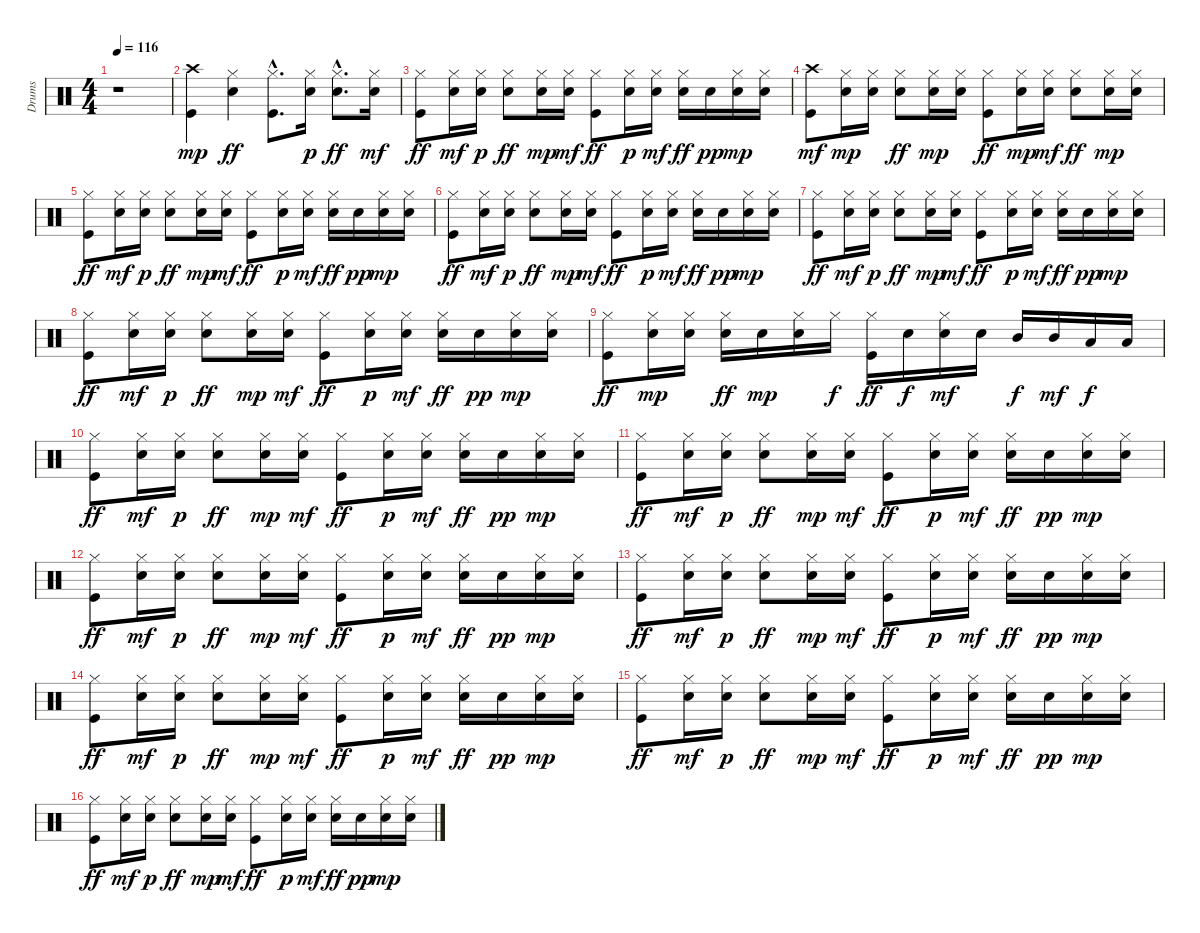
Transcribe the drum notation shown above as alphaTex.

\track ("Drums" "Drums") {instrument percussion}
\staff {score}
\articulation defaults
\ts (4 4)
\tempo 116
\clef neutral
\ks c
r.1{dy mp} |
("Kick (hit)" "Crash high (hit)").4 ("Electric Snare (hit)" "Hi-Hat (closed)").4{dy ff} ("Kick (hit)"{hac} "Hi-Hat (closed)"{hac}).8{d} ("Snare (hit) 2" "Hi-Hat (closed)").16{dy p} ("Electric Snare (hit)"{hac} "Hi-Hat (closed)"{hac}).8{d dy ff} ("Snare (hit) 2" "Hi-Hat (closed)").16{dy mf} |
("Kick (hit)" "Hi-Hat (closed)").8{dy ff} ("Snare (hit) 2" "Hi-Hat (closed)").16{dy mf} ("Snare (hit) 2" "Hi-Hat (closed)").16{dy p} ("Electric Snare (hit)" "Hi-Hat (closed)").8{dy ff} ("Snare (hit) 2" "Hi-Hat (closed)").16{dy mp} ("Snare (hit) 2" "Hi-Hat (closed)").16{dy mf} ("Kick (hit)" "Hi-Hat (closed)").8{dy ff} ("Snare (hit) 2" "Hi-Hat (closed)").16{dy p} ("Snare (hit) 2" "Hi-Hat (closed)").16{dy mf} ("Electric Snare (hit)" "Hi-Hat (closed)").16{dy ff} "Snare (hit) 2".16{dy pp} ("Snare (hit) 2" "Hi-Hat (closed)").16{dy mp} ("Snare (hit) 2" "Hi-Hat (closed)").16 |
("Kick (hit)" "Crash high (hit)").8{dy mf} ("Snare (hit) 2" "Hi-Hat (closed)").16{dy mp} ("Snare (hit) 2" "Hi-Hat (closed)").16 ("Electric Snare (hit)" "Hi-Hat (closed)").8{dy ff} ("Snare (hit) 2" "Hi-Hat (closed)").16{dy mp} ("Snare (hit) 2" "Hi-Hat (closed)").16 ("Kick (hit)" "Hi-Hat (closed)").8{dy ff} ("Snare (hit) 2" "Hi-Hat (closed)").16{dy mp} ("Snare (hit) 2" "Hi-Hat (closed)").16{dy mf} ("Electric Snare (hit)" "Hi-Hat (closed)").8{dy ff} ("Snare (hit) 2" "Hi-Hat (closed)").16{dy mp} ("Snare (hit) 2" "Hi-Hat (closed)").16 |
("Kick (hit)" "Hi-Hat (closed)").8{dy ff} ("Snare (hit) 2" "Hi-Hat (closed)").16{dy mf} ("Snare (hit) 2" "Hi-Hat (closed)").16{dy p} ("Electric Snare (hit)" "Hi-Hat (closed)").8{dy ff} ("Snare (hit) 2" "Hi-Hat (closed)").16{dy mp} ("Snare (hit) 2" "Hi-Hat (closed)").16{dy mf} ("Kick (hit)" "Hi-Hat (closed)").8{dy ff} ("Snare (hit) 2" "Hi-Hat (closed)").16{dy p} ("Snare (hit) 2" "Hi-Hat (closed)").16{dy mf} ("Electric Snare (hit)" "Hi-Hat (closed)").16{dy ff} "Snare (hit) 2".16{dy pp} ("Snare (hit) 2" "Hi-Hat (closed)").16{dy mp} ("Snare (hit) 2" "Hi-Hat (closed)").16 |
("Kick (hit)" "Hi-Hat (closed)").8{dy ff} ("Snare (hit) 2" "Hi-Hat (closed)").16{dy mf} ("Snare (hit) 2" "Hi-Hat (closed)").16{dy p} ("Electric Snare (hit)" "Hi-Hat (closed)").8{dy ff} ("Snare (hit) 2" "Hi-Hat (closed)").16{dy mp} ("Snare (hit) 2" "Hi-Hat (closed)").16{dy mf} ("Kick (hit)" "Hi-Hat (closed)").8{dy ff} ("Snare (hit) 2" "Hi-Hat (closed)").16{dy p} ("Snare (hit) 2" "Hi-Hat (closed)").16{dy mf} ("Electric Snare (hit)" "Hi-Hat (closed)").16{dy ff} "Snare (hit) 2".16{dy pp} ("Snare (hit) 2" "Hi-Hat (closed)").16{dy mp} ("Snare (hit) 2" "Hi-Hat (closed)").16 |
("Kick (hit)" "Hi-Hat (closed)").8{dy ff} ("Snare (hit) 2" "Hi-Hat (closed)").16{dy mf} ("Snare (hit) 2" "Hi-Hat (closed)").16{dy p} ("Electric Snare (hit)" "Hi-Hat (closed)").8{dy ff} ("Snare (hit) 2" "Hi-Hat (closed)").16{dy mp} ("Snare (hit) 2" "Hi-Hat (closed)").16{dy mf} ("Kick (hit)" "Hi-Hat (closed)").8{dy ff} ("Snare (hit) 2" "Hi-Hat (closed)").16{dy p} ("Snare (hit) 2" "Hi-Hat (closed)").16{dy mf} ("Electric Snare (hit)" "Hi-Hat (closed)").16{dy ff} "Snare (hit) 2".16{dy pp} ("Snare (hit) 2" "Hi-Hat (closed)").16{dy mp} ("Snare (hit) 2" "Hi-Hat (closed)").16 |
("Kick (hit)" "Hi-Hat (closed)").8{dy ff} ("Snare (hit) 2" "Hi-Hat (closed)").16{dy mf} ("Snare (hit) 2" "Hi-Hat (closed)").16{dy p} ("Electric Snare (hit)" "Hi-Hat (closed)").8{dy ff} ("Snare (hit) 2" "Hi-Hat (closed)").16{dy mp} ("Snare (hit) 2" "Hi-Hat (closed)").16{dy mf} ("Kick (hit)" "Hi-Hat (closed)").8{dy ff} ("Snare (hit) 2" "Hi-Hat (closed)").16{dy p} ("Snare (hit) 2" "Hi-Hat (closed)").16{dy mf} ("Electric Snare (hit)" "Hi-Hat (closed)").16{dy ff} "Snare (hit) 2".16{dy pp} ("Snare (hit) 2" "Hi-Hat (closed)").16{dy mp} ("Snare (hit) 2" "Hi-Hat (closed)").16 |
("Kick (hit)" "Hi-Hat (closed)").8{dy ff} ("Snare (hit) 2" "Hi-Hat (closed)").16{dy mp} ("Snare (hit) 2" "Hi-Hat (closed)").16 ("Electric Snare (hit)" "Hi-Hat (closed)").16{dy ff} "Snare (hit) 2".16{dy mp} ("Snare (hit) 2" "Hi-Hat (closed)").16 "Hi-Hat (closed)".16{dy f} ("Kick (hit)" "Hi-Hat (closed)").16{dy ff} "Snare (hit) 2".16{dy f} ("Snare (hit) 2" "Hi-Hat (closed)").16{dy mf} "Snare (hit) 2".16 "Mid Tom (hit)".16{dy f} "Mid Tom (hit)".16{dy mf} "Low Tom (hit)".16{dy f} "Low Floor Tom (hit)".16 |
("Kick (hit)" "Hi-Hat (closed)").8{dy ff} ("Snare (hit) 2" "Hi-Hat (closed)").16{dy mf} ("Snare (hit) 2" "Hi-Hat (closed)").16{dy p} ("Electric Snare (hit)" "Hi-Hat (closed)").8{dy ff} ("Snare (hit) 2" "Hi-Hat (closed)").16{dy mp} ("Snare (hit) 2" "Hi-Hat (closed)").16{dy mf} ("Kick (hit)" "Hi-Hat (closed)").8{dy ff} ("Snare (hit) 2" "Hi-Hat (closed)").16{dy p} ("Snare (hit) 2" "Hi-Hat (closed)").16{dy mf} ("Electric Snare (hit)" "Hi-Hat (closed)").16{dy ff} "Snare (hit) 2".16{dy pp} ("Snare (hit) 2" "Hi-Hat (closed)").16{dy mp} ("Snare (hit) 2" "Hi-Hat (closed)").16 |
("Kick (hit)" "Hi-Hat (closed)").8{dy ff} ("Snare (hit) 2" "Hi-Hat (closed)").16{dy mf} ("Snare (hit) 2" "Hi-Hat (closed)").16{dy p} ("Electric Snare (hit)" "Hi-Hat (closed)").8{dy ff} ("Snare (hit) 2" "Hi-Hat (closed)").16{dy mp} ("Snare (hit) 2" "Hi-Hat (closed)").16{dy mf} ("Kick (hit)" "Hi-Hat (closed)").8{dy ff} ("Snare (hit) 2" "Hi-Hat (closed)").16{dy p} ("Snare (hit) 2" "Hi-Hat (closed)").16{dy mf} ("Electric Snare (hit)" "Hi-Hat (closed)").16{dy ff} "Snare (hit) 2".16{dy pp} ("Snare (hit) 2" "Hi-Hat (closed)").16{dy mp} ("Snare (hit) 2" "Hi-Hat (closed)").16 |
("Kick (hit)" "Hi-Hat (closed)").8{dy ff} ("Snare (hit) 2" "Hi-Hat (closed)").16{dy mf} ("Snare (hit) 2" "Hi-Hat (closed)").16{dy p} ("Electric Snare (hit)" "Hi-Hat (closed)").8{dy ff} ("Snare (hit) 2" "Hi-Hat (closed)").16{dy mp} ("Snare (hit) 2" "Hi-Hat (closed)").16{dy mf} ("Kick (hit)" "Hi-Hat (closed)").8{dy ff} ("Snare (hit) 2" "Hi-Hat (closed)").16{dy p} ("Snare (hit) 2" "Hi-Hat (closed)").16{dy mf} ("Electric Snare (hit)" "Hi-Hat (closed)").16{dy ff} "Snare (hit) 2".16{dy pp} ("Snare (hit) 2" "Hi-Hat (closed)").16{dy mp} ("Snare (hit) 2" "Hi-Hat (closed)").16 |
("Kick (hit)" "Hi-Hat (closed)").8{dy ff} ("Snare (hit) 2" "Hi-Hat (closed)").16{dy mf} ("Snare (hit) 2" "Hi-Hat (closed)").16{dy p} ("Electric Snare (hit)" "Hi-Hat (closed)").8{dy ff} ("Snare (hit) 2" "Hi-Hat (closed)").16{dy mp} ("Snare (hit) 2" "Hi-Hat (closed)").16{dy mf} ("Kick (hit)" "Hi-Hat (closed)").8{dy ff} ("Snare (hit) 2" "Hi-Hat (closed)").16{dy p} ("Snare (hit) 2" "Hi-Hat (closed)").16{dy mf} ("Electric Snare (hit)" "Hi-Hat (closed)").16{dy ff} "Snare (hit) 2".16{dy pp} ("Snare (hit) 2" "Hi-Hat (closed)").16{dy mp} ("Snare (hit) 2" "Hi-Hat (closed)").16 |
("Kick (hit)" "Hi-Hat (closed)").8{dy ff} ("Snare (hit) 2" "Hi-Hat (closed)").16{dy mf} ("Snare (hit) 2" "Hi-Hat (closed)").16{dy p} ("Electric Snare (hit)" "Hi-Hat (closed)").8{dy ff} ("Snare (hit) 2" "Hi-Hat (closed)").16{dy mp} ("Snare (hit) 2" "Hi-Hat (closed)").16{dy mf} ("Kick (hit)" "Hi-Hat (closed)").8{dy ff} ("Snare (hit) 2" "Hi-Hat (closed)").16{dy p} ("Snare (hit) 2" "Hi-Hat (closed)").16{dy mf} ("Electric Snare (hit)" "Hi-Hat (closed)").16{dy ff} "Snare (hit) 2".16{dy pp} ("Snare (hit) 2" "Hi-Hat (closed)").16{dy mp} ("Snare (hit) 2" "Hi-Hat (closed)").16 |
("Kick (hit)" "Hi-Hat (closed)").8{dy ff} ("Snare (hit) 2" "Hi-Hat (closed)").16{dy mf} ("Snare (hit) 2" "Hi-Hat (closed)").16{dy p} ("Electric Snare (hit)" "Hi-Hat (closed)").8{dy ff} ("Snare (hit) 2" "Hi-Hat (closed)").16{dy mp} ("Snare (hit) 2" "Hi-Hat (closed)").16{dy mf} ("Kick (hit)" "Hi-Hat (closed)").8{dy ff} ("Snare (hit) 2" "Hi-Hat (closed)").16{dy p} ("Snare (hit) 2" "Hi-Hat (closed)").16{dy mf} ("Electric Snare (hit)" "Hi-Hat (closed)").16{dy ff} "Snare (hit) 2".16{dy pp} ("Snare (hit) 2" "Hi-Hat (closed)").16{dy mp} ("Snare (hit) 2" "Hi-Hat (closed)").16 |
("Kick (hit)" "Hi-Hat (closed)").8{dy ff} ("Snare (hit) 2" "Hi-Hat (closed)").16{dy mf} ("Snare (hit) 2" "Hi-Hat (closed)").16{dy p} ("Electric Snare (hit)" "Hi-Hat (closed)").8{dy ff} ("Snare (hit) 2" "Hi-Hat (closed)").16{dy mp} ("Snare (hit) 2" "Hi-Hat (closed)").16{dy mf} ("Kick (hit)" "Hi-Hat (closed)").8{dy ff} ("Snare (hit) 2" "Hi-Hat (closed)").16{dy p} ("Snare (hit) 2" "Hi-Hat (closed)").16{dy mf} ("Electric Snare (hit)" "Hi-Hat (closed)").16{dy ff} "Snare (hit) 2".16{dy pp} ("Snare (hit) 2" "Hi-Hat (closed)").16{dy mp} ("Snare (hit) 2" "Hi-Hat (closed)").16
